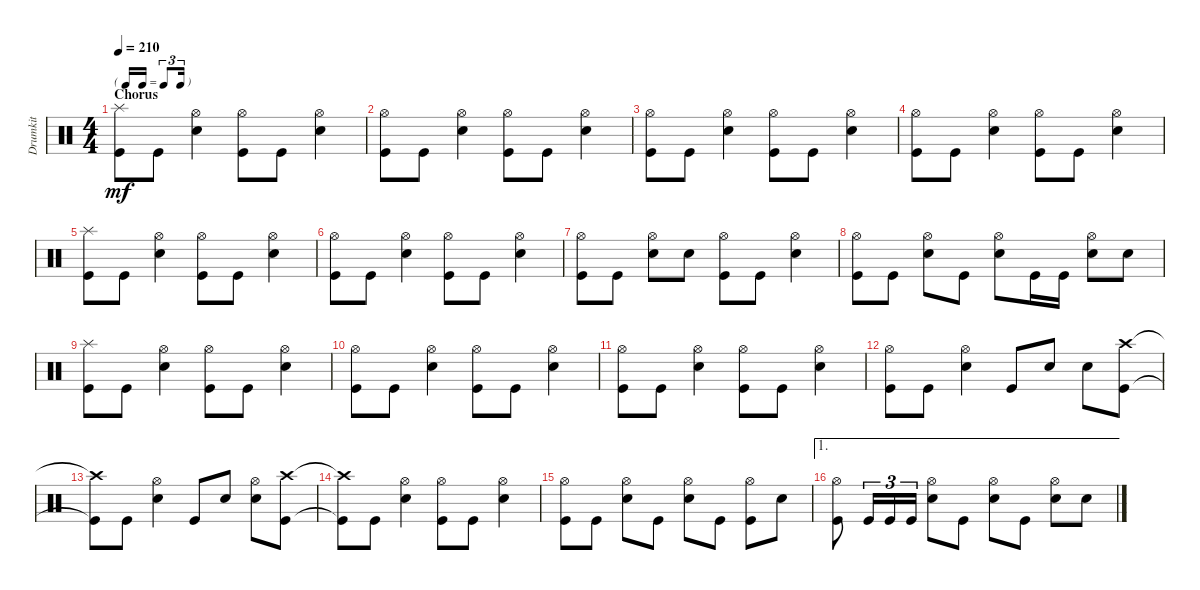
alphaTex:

\track ("Drumkit" "Drumkit") {instrument percussion}
\staff {score}
\articulation defaults
\ts (4 4)
\tf triplet16th
\section ("" "Chorus")
\tempo 210
\clef neutral
\ks c
("Kick (hit)" "Splash (hit)").8{dy mf} "Kick (hit)".8 ("Snare (hit) 2" "Hi-Hat (open)").4 ("Kick (hit)" "Hi-Hat (open)").8 "Kick (hit)".8 ("Snare (hit) 2" "Hi-Hat (open)").4 |
("Kick (hit)" "Hi-Hat (open)").8 "Kick (hit)".8 ("Snare (hit) 2" "Hi-Hat (open)").4 ("Kick (hit)" "Hi-Hat (open)").8 "Kick (hit)".8 ("Snare (hit) 2" "Hi-Hat (open)").4 |
("Kick (hit)" "Hi-Hat (open)").8 "Kick (hit)".8 ("Snare (hit) 2" "Hi-Hat (open)").4 ("Kick (hit)" "Hi-Hat (open)").8 "Kick (hit)".8 ("Snare (hit) 2" "Hi-Hat (open)").4 |
("Kick (hit)" "Hi-Hat (open)").8 "Kick (hit)".8 ("Snare (hit) 2" "Hi-Hat (open)").4 ("Kick (hit)" "Hi-Hat (open)").8 "Kick (hit)".8 ("Snare (hit) 2" "Hi-Hat (open)").4 |
("Kick (hit)" "Splash (hit)").8 "Kick (hit)".8 ("Snare (hit) 2" "Hi-Hat (open)").4 ("Kick (hit)" "Hi-Hat (open)").8 "Kick (hit)".8 ("Snare (hit) 2" "Hi-Hat (open)").4 |
("Kick (hit)" "Hi-Hat (open)").8 "Kick (hit)".8 ("Snare (hit) 2" "Hi-Hat (open)").4 ("Kick (hit)" "Hi-Hat (open)").8 "Kick (hit)".8 ("Snare (hit) 2" "Hi-Hat (open)").4 |
("Kick (hit)" "Hi-Hat (open)").8 "Kick (hit)".8 ("Snare (hit) 2" "Hi-Hat (open)").8 "Snare (hit) 2".8 ("Kick (hit)" "Hi-Hat (open)").8 "Kick (hit)".8 ("Snare (hit) 2" "Hi-Hat (open)").4 |
("Kick (hit)" "Hi-Hat (open)").8 "Kick (hit)".8 ("Snare (hit) 2" "Hi-Hat (open)").8 "Kick (hit)".8 ("Snare (hit) 2" "Hi-Hat (open)").8 "Kick (hit)".16 "Kick (hit)".16 ("Snare (hit) 2" "Hi-Hat (open)").8 "Snare (hit) 2".8 |
("Kick (hit)" "Splash (hit)").8 "Kick (hit)".8 ("Snare (hit) 2" "Hi-Hat (open)").4 ("Kick (hit)" "Hi-Hat (open)").8 "Kick (hit)".8 ("Snare (hit) 2" "Hi-Hat (open)").4 |
("Kick (hit)" "Hi-Hat (open)").8 "Kick (hit)".8 ("Snare (hit) 2" "Hi-Hat (open)").4 ("Kick (hit)" "Hi-Hat (open)").8 "Kick (hit)".8 ("Snare (hit) 2" "Hi-Hat (open)").4 |
("Kick (hit)" "Hi-Hat (open)").8 "Kick (hit)".8 ("Snare (hit) 2" "Hi-Hat (open)").4 ("Kick (hit)" "Hi-Hat (open)").8 "Kick (hit)".8 ("Snare (hit) 2" "Hi-Hat (open)").4 |
("Kick (hit)" "Hi-Hat (open)").8 "Kick (hit)".8 ("Snare (hit) 2" "Hi-Hat (open)").4 "Kick (hit)".8 "Snare (hit) 2".8 "Snare (hit) 2".8 ("Kick (hit)" "Crash high (hit)").8 |
("Kick (hit)"{t} "Crash high (hit)"{t}).8 "Kick (hit)".8 ("Snare (hit) 2" "Hi-Hat (open)").4 "Kick (hit)".8 "Snare (hit) 2".8 ("Snare (hit) 2" "Hi-Hat (open)").8 ("Kick (hit)" "Crash high (hit)").8 |
("Kick (hit)"{t} "Crash high (hit)"{t}).8 "Kick (hit)".8 ("Snare (hit) 2" "Hi-Hat (open)").4 ("Kick (hit)" "Hi-Hat (open)").8 "Kick (hit)".8 ("Snare (hit) 2" "Hi-Hat (open)").4 |
("Kick (hit)" "Hi-Hat (open)").8 "Kick (hit)".8 ("Snare (hit) 2" "Hi-Hat (open)").8 "Kick (hit)".8 ("Snare (hit) 2" "Hi-Hat (open)").8 "Kick (hit)".8 ("Kick (hit)" "Hi-Hat (open)").8 "Snare (hit) 2".8 |
\ae 1
("Kick (hit)" "Hi-Hat (open)").8 "Kick (hit)".16{tu (3 2)} "Kick (hit)".16{tu (3 2)} "Kick (hit)".16{tu (3 2)} ("Snare (hit) 2" "Hi-Hat (open)").8 "Kick (hit)".8 ("Snare (hit) 2" "Hi-Hat (open)").8 "Kick (hit)".8 ("Snare (hit) 2" "Hi-Hat (open)").8 "Snare (hit) 2".8
